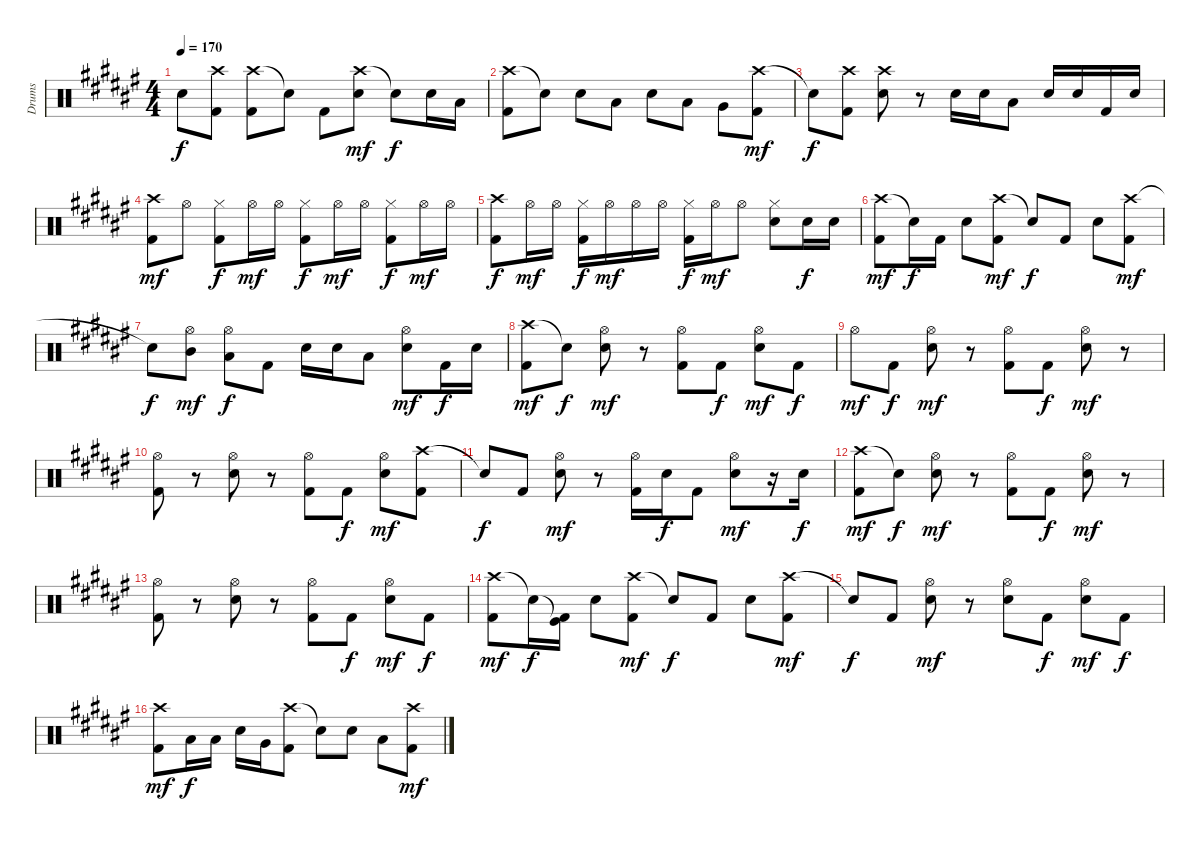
\track ("Drums" "Drums") {instrument percussion}
\staff {score}
\articulation defaults
\ts (4 4)
\tempo 170
\clef neutral
\ks f# "Snare (hit)"{t}.8{dy f}
("Crash high (hit)" "Kick (hit) 2").8 ("Crash high (hit)" "Kick (hit) 2").8 "Snare (hit)"{t}.8 "Kick (hit) 2".8 ("Crash high (hit)" "Snare (hit) 2").8{dy mf} "Snare (hit)"{t}.8{dy f} "Snare (hit) 2".16 "Low Tom (hit)".16 |
("Crash high (hit)" "Kick (hit) 2").8 "Snare (hit)"{t}.8 "Snare (hit) 2".8 "Low Tom (hit)".8 "Snare (hit) 2".8 "Low Tom (hit)".8 "Very Low Tom (hit)".8 ("Crash high (hit)" "Kick (hit) 2").8{dy mf} |
"Snare (hit)"{t}.8{dy f} ("Crash high (hit)" "Kick (hit) 2").8 ("Crash high (hit)" "Snare (hit) 2").8 r.8 "Snare (hit) 2".16 "Snare (hit) 2".16 "Low Tom (hit)".8 "Snare (hit) 2".16 "Snare (hit) 2".16 "Kick (hit) 2".16 "Snare (hit) 2".16 |
("Crash high (hit)" "Kick (hit) 2").8{dy mf} "Hi-Hat (open)".8 ("Hi-Hat (closed)" "Kick (hit) 2").8{dy f} "Hi-Hat (open)".16{dy mf} "Hi-Hat (open)".16 ("Hi-Hat (closed)" "Kick (hit) 2").8{dy f} "Hi-Hat (open)".16{dy mf} "Hi-Hat (open)".16 ("Hi-Hat (closed)" "Kick (hit) 2").8{dy f} "Hi-Hat (open)".16{dy mf} "Hi-Hat (open)".16 |
("Crash high (hit)" "Kick (hit) 2").8{dy f} "Hi-Hat (open)".16{dy mf} "Hi-Hat (open)".16 ("Hi-Hat (closed)" "Kick (hit) 2").16{dy f} "Hi-Hat (open)".16{dy mf} "Hi-Hat (open)".16 "Hi-Hat (open)".16 ("Hi-Hat (closed)" "Kick (hit) 2").16{dy f} "Hi-Hat (open)".16{dy mf} "Hi-Hat (open)".8 ("Hi-Hat (closed)" "Snare (hit) 2").8 "Snare (hit) 2".16{dy f} "Snare (hit) 2".16 |
("Crash high (hit)" "Kick (hit) 2").8{dy mf} "Snare (hit)"{t}.16{dy f} "Kick (hit) 2".16 "Snare (hit) 2".8 ("Crash high (hit)" "Kick (hit) 2").8{dy mf} "Snare (hit)"{t}.8{dy f} "Kick (hit) 2".8 "Snare (hit) 2".8 ("Crash high (hit)" "Kick (hit) 2").8{dy mf} |
"Snare (hit)"{t}.8{dy f} ("Hi-Hat (open)" "Mid Tom (hit)").8{dy mf} ("Hi-Hat (open)" "Low Tom (hit)").8{dy f} "Kick (hit) 2".8 "Snare (hit) 2".16 "Snare (hit) 2".16 "Low Tom (hit)".8 ("Hi-Hat (open)" "Snare (hit) 2").8{dy mf} "Kick (hit) 2".16{dy f} "Snare (hit) 2".16 |
("Crash high (hit)" "Kick (hit) 2").8{dy mf} "Snare (hit)"{t}.8{dy f} ("Hi-Hat (open)" "Snare (hit) 2").8{dy mf} r.8 ("Hi-Hat (open)" "Kick (hit) 2").8 "Kick (hit) 2".8{dy f} ("Hi-Hat (open)" "Snare (hit) 2").8{dy mf} "Kick (hit) 2".8{dy f} |
"Hi-Hat (open)".8{dy mf} "Kick (hit) 2".8{dy f} ("Hi-Hat (open)" "Snare (hit) 2").8{dy mf} r.8 ("Hi-Hat (open)" "Kick (hit) 2").8 "Kick (hit) 2".8{dy f} ("Hi-Hat (open)" "Snare (hit) 2").8{dy mf} r.8 |
("Hi-Hat (open)" "Kick (hit) 2").8 r.8 ("Hi-Hat (open)" "Snare (hit) 2").8 r.8 ("Hi-Hat (open)" "Kick (hit) 2").8 "Kick (hit) 2".8{dy f} ("Hi-Hat (open)" "Snare (hit) 2").8{dy mf} ("Crash high (hit)" "Kick (hit) 2").8 |
"Snare (hit)"{t}.8{dy f} "Kick (hit) 2".8 ("Hi-Hat (open)" "Snare (hit) 2").8{dy mf} r.8 ("Hi-Hat (open)" "Kick (hit) 2").16 "Snare (hit) 2".16{dy f} "Kick (hit) 2".8 ("Hi-Hat (open)" "Snare (hit) 2").8{dy mf} r.16 "Snare (hit) 2".16{dy f} |
("Crash high (hit)" "Kick (hit) 2").8{dy mf} "Snare (hit)"{t}.8{dy f} ("Hi-Hat (open)" "Snare (hit) 2").8{dy mf} r.8 ("Hi-Hat (open)" "Kick (hit) 2").8 "Kick (hit) 2".8{dy f} ("Hi-Hat (open)" "Snare (hit) 2").8{dy mf} r.8 |
("Hi-Hat (open)" "Kick (hit) 2").8 r.8 ("Hi-Hat (open)" "Snare (hit) 2").8 r.8 ("Hi-Hat (open)" "Kick (hit) 2").8 "Kick (hit) 2".8{dy f} ("Hi-Hat (open)" "Snare (hit) 2").8{dy mf} "Kick (hit) 2".8{dy f} |
("Crash high (hit)" "Kick (hit) 2").8{dy mf} "Snare (hit)"{t}.16{dy f} ("Kick (hit)"{t} "Kick (hit) 2").16 "Snare (hit) 2".8 ("Crash high (hit)" "Kick (hit) 2").8{dy mf} "Snare (hit)"{t}.8{dy f} "Kick (hit) 2".8 "Snare (hit) 2".8 ("Crash high (hit)" "Kick (hit) 2").8{dy mf} |
"Snare (hit)"{t}.8{dy f} "Kick (hit) 2".8 ("Hi-Hat (open)" "Snare (hit) 2").8{dy mf} r.8 ("Hi-Hat (open)" "Snare (hit) 2").8 "Kick (hit) 2".8{dy f} ("Hi-Hat (open)" "Snare (hit) 2").8{dy mf} "Kick (hit) 2".8{dy f} |
("Crash high (hit)" "Kick (hit) 2").8{dy mf} "Low Tom (hit)".16{dy f} "Low Tom (hit)".16 "Snare (hit) 2".16 "Very Low Tom (hit)".16 ("Crash high (hit)" "Kick (hit) 2").8 "Snare (hit)"{t}.8 "Snare (hit) 2".8 "Low Tom (hit)".8 ("Crash high (hit)" "Kick (hit) 2").8{dy mf}
